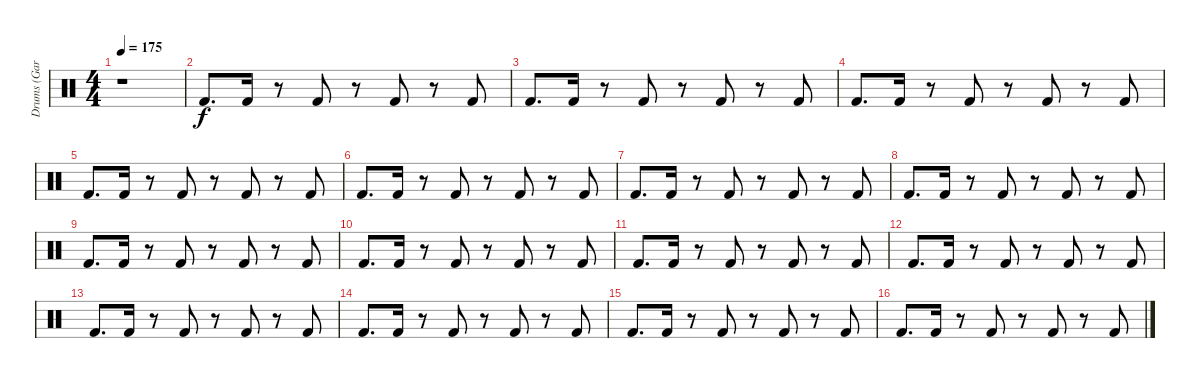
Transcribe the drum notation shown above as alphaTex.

\track ("Drums (Gar Samuelson)" "Drums (Gar") {instrument percussion}
\staff {score}
\articulation defaults
\ts (4 4)
\tempo 175
\clef neutral
\ks c
r.1{dy f} |
"Kick (hit) 2".8{d} "Kick (hit) 2".16 r.8 "Kick (hit) 2".8 r.8 "Kick (hit) 2".8 r.8 "Kick (hit) 2".8 |
"Kick (hit) 2".8{d} "Kick (hit) 2".16 r.8 "Kick (hit) 2".8 r.8 "Kick (hit) 2".8 r.8 "Kick (hit) 2".8 |
"Kick (hit) 2".8{d} "Kick (hit) 2".16 r.8 "Kick (hit) 2".8 r.8 "Kick (hit) 2".8 r.8 "Kick (hit) 2".8 |
"Kick (hit) 2".8{d} "Kick (hit) 2".16 r.8 "Kick (hit) 2".8 r.8 "Kick (hit) 2".8 r.8 "Kick (hit) 2".8 |
"Kick (hit) 2".8{d} "Kick (hit) 2".16 r.8 "Kick (hit) 2".8 r.8 "Kick (hit) 2".8 r.8 "Kick (hit) 2".8 |
"Kick (hit) 2".8{d} "Kick (hit) 2".16 r.8 "Kick (hit) 2".8 r.8 "Kick (hit) 2".8 r.8 "Kick (hit) 2".8 |
"Kick (hit) 2".8{d} "Kick (hit) 2".16 r.8 "Kick (hit) 2".8 r.8 "Kick (hit) 2".8 r.8 "Kick (hit) 2".8 |
"Kick (hit) 2".8{d} "Kick (hit) 2".16 r.8 "Kick (hit) 2".8 r.8 "Kick (hit) 2".8 r.8 "Kick (hit) 2".8 |
"Kick (hit) 2".8{d} "Kick (hit) 2".16 r.8 "Kick (hit) 2".8 r.8 "Kick (hit) 2".8 r.8 "Kick (hit) 2".8 |
"Kick (hit) 2".8{d} "Kick (hit) 2".16 r.8 "Kick (hit) 2".8 r.8 "Kick (hit) 2".8 r.8 "Kick (hit) 2".8 |
"Kick (hit) 2".8{d} "Kick (hit) 2".16 r.8 "Kick (hit) 2".8 r.8 "Kick (hit) 2".8 r.8 "Kick (hit) 2".8 |
"Kick (hit) 2".8{d} "Kick (hit) 2".16 r.8 "Kick (hit) 2".8 r.8 "Kick (hit) 2".8 r.8 "Kick (hit) 2".8 |
"Kick (hit) 2".8{d} "Kick (hit) 2".16 r.8 "Kick (hit) 2".8 r.8 "Kick (hit) 2".8 r.8 "Kick (hit) 2".8 |
"Kick (hit) 2".8{d} "Kick (hit) 2".16 r.8 "Kick (hit) 2".8 r.8 "Kick (hit) 2".8 r.8 "Kick (hit) 2".8 |
"Kick (hit) 2".8{d} "Kick (hit) 2".16 r.8 "Kick (hit) 2".8 r.8 "Kick (hit) 2".8 r.8 "Kick (hit) 2".8
